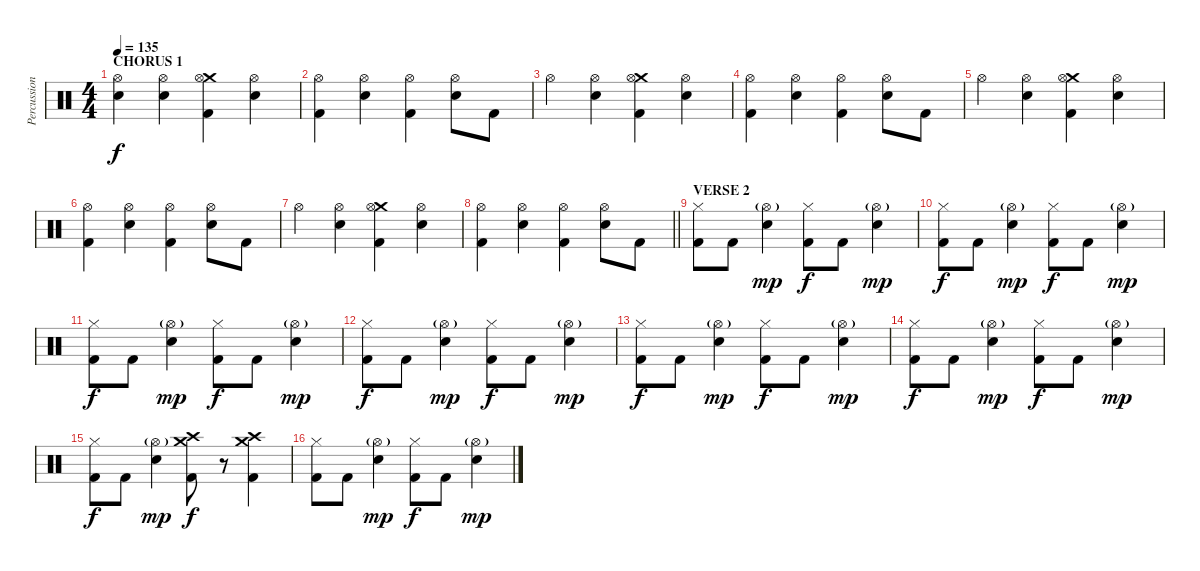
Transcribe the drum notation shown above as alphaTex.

\track ("Percussion" "Percussion") {instrument percussion}
\staff {score}
\articulation defaults
\ts (4 4)
\section ("" "CHORUS 1")
\tempo 135
\clef neutral
\ks c
("Hi-Hat (open)" "Electric Snare (hit)").4{dy f} ("Hi-Hat (open)" "Electric Snare (hit)").4 ("Crash medium (hit)" "Hi-Hat (open)" "Kick (hit) 2").4 ("Hi-Hat (open)" "Electric Snare (hit)").4 |
("Hi-Hat (open)" "Kick (hit) 2").4 ("Hi-Hat (open)" "Electric Snare (hit)").4 ("Hi-Hat (open)" "Kick (hit) 2").4 ("Hi-Hat (open)" "Electric Snare (hit)").8 "Kick (hit) 2".8 |
"Hi-Hat (open)".4 ("Hi-Hat (open)" "Electric Snare (hit)").4 ("Crash medium (hit)" "Hi-Hat (open)" "Kick (hit) 2").4 ("Hi-Hat (open)" "Electric Snare (hit)").4 |
("Hi-Hat (open)" "Kick (hit) 2").4 ("Hi-Hat (open)" "Electric Snare (hit)").4 ("Hi-Hat (open)" "Kick (hit) 2").4 ("Hi-Hat (open)" "Electric Snare (hit)").8 "Kick (hit) 2".8 |
"Hi-Hat (open)".4 ("Hi-Hat (open)" "Electric Snare (hit)").4 ("Crash medium (hit)" "Hi-Hat (open)" "Kick (hit) 2").4 ("Hi-Hat (open)" "Electric Snare (hit)").4 |
("Hi-Hat (open)" "Kick (hit) 2").4 ("Hi-Hat (open)" "Electric Snare (hit)").4 ("Hi-Hat (open)" "Kick (hit) 2").4 ("Hi-Hat (open)" "Electric Snare (hit)").8 "Kick (hit) 2".8 |
"Hi-Hat (open)".4 ("Hi-Hat (open)" "Electric Snare (hit)").4 ("Crash medium (hit)" "Hi-Hat (open)" "Kick (hit) 2").4 ("Hi-Hat (open)" "Electric Snare (hit)").4 |
\barLineRight lightlight
("Hi-Hat (open)" "Kick (hit) 2").4 ("Hi-Hat (open)" "Electric Snare (hit)").4 ("Hi-Hat (open)" "Kick (hit) 2").4 ("Hi-Hat (open)" "Electric Snare (hit)").8 "Kick (hit) 2".8 |
\section ("" "VERSE 2")
("Hi-Hat (closed)" "Kick (hit) 2").8 "Kick (hit) 2".8 ("Hi-Hat (open)"{g} "Electric Snare (hit)").4{dy mp} ("Hi-Hat (closed)" "Kick (hit) 2").8{dy f} "Kick (hit) 2".8 ("Hi-Hat (open)"{g} "Electric Snare (hit)").4{dy mp} |
("Hi-Hat (closed)" "Kick (hit) 2").8{dy f} "Kick (hit) 2".8 ("Hi-Hat (open)"{g} "Electric Snare (hit)").4{dy mp} ("Hi-Hat (closed)" "Kick (hit) 2").8{dy f} "Kick (hit) 2".8 ("Hi-Hat (open)"{g} "Electric Snare (hit)").4{dy mp} |
("Hi-Hat (closed)" "Kick (hit) 2").8{dy f} "Kick (hit) 2".8 ("Hi-Hat (open)"{g} "Electric Snare (hit)").4{dy mp} ("Hi-Hat (closed)" "Kick (hit) 2").8{dy f} "Kick (hit) 2".8 ("Hi-Hat (open)"{g} "Electric Snare (hit)").4{dy mp} |
("Hi-Hat (closed)" "Kick (hit) 2").8{dy f} "Kick (hit) 2".8 ("Hi-Hat (open)"{g} "Electric Snare (hit)").4{dy mp} ("Hi-Hat (closed)" "Kick (hit) 2").8{dy f} "Kick (hit) 2".8 ("Hi-Hat (open)"{g} "Electric Snare (hit)").4{dy mp} |
("Hi-Hat (closed)" "Kick (hit) 2").8{dy f} "Kick (hit) 2".8 ("Hi-Hat (open)"{g} "Electric Snare (hit)").4{dy mp} ("Hi-Hat (closed)" "Kick (hit) 2").8{dy f} "Kick (hit) 2".8 ("Hi-Hat (open)"{g} "Electric Snare (hit)").4{dy mp} |
("Hi-Hat (closed)" "Kick (hit) 2").8{dy f} "Kick (hit) 2".8 ("Hi-Hat (open)"{g} "Electric Snare (hit)").4{dy mp} ("Hi-Hat (closed)" "Kick (hit) 2").8{dy f} "Kick (hit) 2".8 ("Hi-Hat (open)"{g} "Electric Snare (hit)").4{dy mp} |
("Hi-Hat (closed)" "Kick (hit) 2").8{dy f} "Kick (hit) 2".8 ("Hi-Hat (open)"{g} "Electric Snare (hit)").4{dy mp} ("Crash high (hit)" "Crash medium (hit)" "Kick (hit) 2").8{dy f} r.8 ("Crash high (hit)" "Crash medium (hit)" "Kick (hit) 2").4 |
("Hi-Hat (closed)" "Kick (hit) 2").8 "Kick (hit) 2".8 ("Hi-Hat (open)"{g} "Electric Snare (hit)").4{dy mp} ("Hi-Hat (closed)" "Kick (hit) 2").8{dy f} "Kick (hit) 2".8 ("Hi-Hat (open)"{g} "Electric Snare (hit)").4{dy mp}
